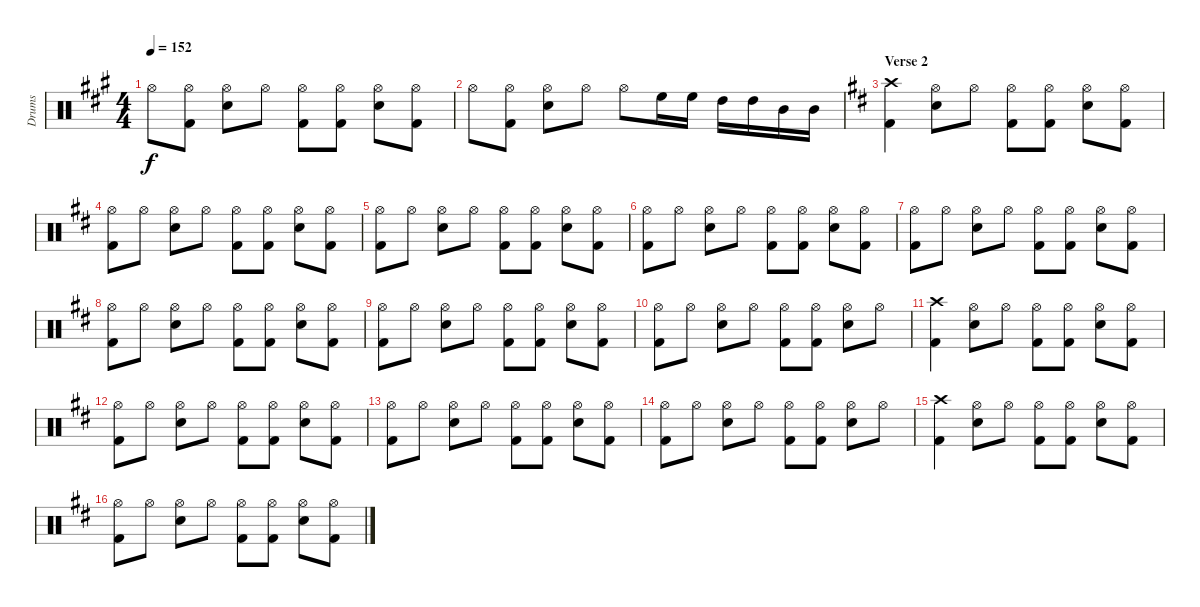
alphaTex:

\track ("Drums" "Drums") {instrument percussion}
\staff {score}
\articulation defaults
\ts (4 4)
\tempo 152
\clef neutral
\ks f#minor "Hi-Hat (open)".8{dy f}
("Kick (hit) 2" "Hi-Hat (open)").8 ("Snare (hit) 2" "Hi-Hat (open)").8 "Hi-Hat (open)".8 ("Kick (hit) 2" "Hi-Hat (open)").8 ("Kick (hit) 2" "Hi-Hat (open)").8 ("Snare (hit) 2" "Hi-Hat (open)").8 ("Kick (hit) 2" "Hi-Hat (open)").8 |
"Hi-Hat (open)".8 ("Kick (hit) 2" "Hi-Hat (open)").8 ("Snare (hit) 2" "Hi-Hat (open)").8 "Hi-Hat (open)".8 "Hi-Hat (open)".8 "High Floor Tom (hit)".16 "High Floor Tom (hit)".16 "High Tom (hit)".16 "High Tom (hit)".16 "Mid Tom (hit)".16 "Mid Tom (hit)".16 |
\section ("" "Verse 2")
\ks bminor
("Kick (hit) 2" "Crash high (hit)").4 ("Snare (hit) 2" "Hi-Hat (open)").8 "Hi-Hat (open)".8 ("Kick (hit) 2" "Hi-Hat (open)").8 ("Kick (hit) 2" "Hi-Hat (open)").8 ("Snare (hit) 2" "Hi-Hat (open)").8 ("Kick (hit) 2" "Hi-Hat (open)").8 |
("Kick (hit) 2" "Hi-Hat (open)").8 "Hi-Hat (open)".8 ("Snare (hit) 2" "Hi-Hat (open)").8 "Hi-Hat (open)".8 ("Kick (hit) 2" "Hi-Hat (open)").8 ("Kick (hit) 2" "Hi-Hat (open)").8 ("Snare (hit) 2" "Hi-Hat (open)").8 ("Kick (hit) 2" "Hi-Hat (open)").8 |
("Kick (hit) 2" "Hi-Hat (open)").8 "Hi-Hat (open)".8 ("Snare (hit) 2" "Hi-Hat (open)").8 "Hi-Hat (open)".8 ("Kick (hit) 2" "Hi-Hat (open)").8 ("Kick (hit) 2" "Hi-Hat (open)").8 ("Snare (hit) 2" "Hi-Hat (open)").8 ("Kick (hit) 2" "Hi-Hat (open)").8 |
("Kick (hit) 2" "Hi-Hat (open)").8 "Hi-Hat (open)".8 ("Snare (hit) 2" "Hi-Hat (open)").8 "Hi-Hat (open)".8 ("Kick (hit) 2" "Hi-Hat (open)").8 ("Kick (hit) 2" "Hi-Hat (open)").8 ("Snare (hit) 2" "Hi-Hat (open)").8 ("Kick (hit) 2" "Hi-Hat (open)").8 |
("Kick (hit) 2" "Hi-Hat (open)").8 "Hi-Hat (open)".8 ("Snare (hit) 2" "Hi-Hat (open)").8 "Hi-Hat (open)".8 ("Kick (hit) 2" "Hi-Hat (open)").8 ("Kick (hit) 2" "Hi-Hat (open)").8 ("Snare (hit) 2" "Hi-Hat (open)").8 ("Kick (hit) 2" "Hi-Hat (open)").8 |
("Kick (hit) 2" "Hi-Hat (open)").8 "Hi-Hat (open)".8 ("Snare (hit) 2" "Hi-Hat (open)").8 "Hi-Hat (open)".8 ("Kick (hit) 2" "Hi-Hat (open)").8 ("Kick (hit) 2" "Hi-Hat (open)").8 ("Snare (hit) 2" "Hi-Hat (open)").8 ("Kick (hit) 2" "Hi-Hat (open)").8 |
("Kick (hit) 2" "Hi-Hat (open)").8 "Hi-Hat (open)".8 ("Snare (hit) 2" "Hi-Hat (open)").8 "Hi-Hat (open)".8 ("Kick (hit) 2" "Hi-Hat (open)").8 ("Kick (hit) 2" "Hi-Hat (open)").8 ("Snare (hit) 2" "Hi-Hat (open)").8 ("Kick (hit) 2" "Hi-Hat (open)").8 |
("Kick (hit) 2" "Hi-Hat (open)").8 "Hi-Hat (open)".8 ("Snare (hit) 2" "Hi-Hat (open)").8 "Hi-Hat (open)".8 ("Kick (hit) 2" "Hi-Hat (open)").8 ("Kick (hit) 2" "Hi-Hat (open)").8 ("Snare (hit) 2" "Hi-Hat (open)").8 "Hi-Hat (open)".8 |
("Kick (hit) 2" "Crash high (hit)").4 ("Snare (hit) 2" "Hi-Hat (open)").8 "Hi-Hat (open)".8 ("Kick (hit) 2" "Hi-Hat (open)").8 ("Kick (hit) 2" "Hi-Hat (open)").8 ("Snare (hit) 2" "Hi-Hat (open)").8 ("Kick (hit) 2" "Hi-Hat (open)").8 |
("Kick (hit) 2" "Hi-Hat (open)").8 "Hi-Hat (open)".8 ("Snare (hit) 2" "Hi-Hat (open)").8 "Hi-Hat (open)".8 ("Kick (hit) 2" "Hi-Hat (open)").8 ("Kick (hit) 2" "Hi-Hat (open)").8 ("Snare (hit) 2" "Hi-Hat (open)").8 ("Kick (hit) 2" "Hi-Hat (open)").8 |
("Kick (hit) 2" "Hi-Hat (open)").8 "Hi-Hat (open)".8 ("Snare (hit) 2" "Hi-Hat (open)").8 "Hi-Hat (open)".8 ("Kick (hit) 2" "Hi-Hat (open)").8 ("Kick (hit) 2" "Hi-Hat (open)").8 ("Snare (hit) 2" "Hi-Hat (open)").8 ("Kick (hit) 2" "Hi-Hat (open)").8 |
("Kick (hit) 2" "Hi-Hat (open)").8 "Hi-Hat (open)".8 ("Snare (hit) 2" "Hi-Hat (open)").8 "Hi-Hat (open)".8 ("Kick (hit) 2" "Hi-Hat (open)").8 ("Kick (hit) 2" "Hi-Hat (open)").8 ("Snare (hit) 2" "Hi-Hat (open)").8 "Hi-Hat (open)".8 |
("Kick (hit) 2" "Crash high (hit)").4 ("Snare (hit) 2" "Hi-Hat (open)").8 "Hi-Hat (open)".8 ("Kick (hit) 2" "Hi-Hat (open)").8 ("Kick (hit) 2" "Hi-Hat (open)").8 ("Snare (hit) 2" "Hi-Hat (open)").8 ("Kick (hit) 2" "Hi-Hat (open)").8 |
("Kick (hit) 2" "Hi-Hat (open)").8 "Hi-Hat (open)".8 ("Snare (hit) 2" "Hi-Hat (open)").8 "Hi-Hat (open)".8 ("Kick (hit) 2" "Hi-Hat (open)").8 ("Kick (hit) 2" "Hi-Hat (open)").8 ("Snare (hit) 2" "Hi-Hat (open)").8 ("Kick (hit) 2" "Hi-Hat (open)").8
